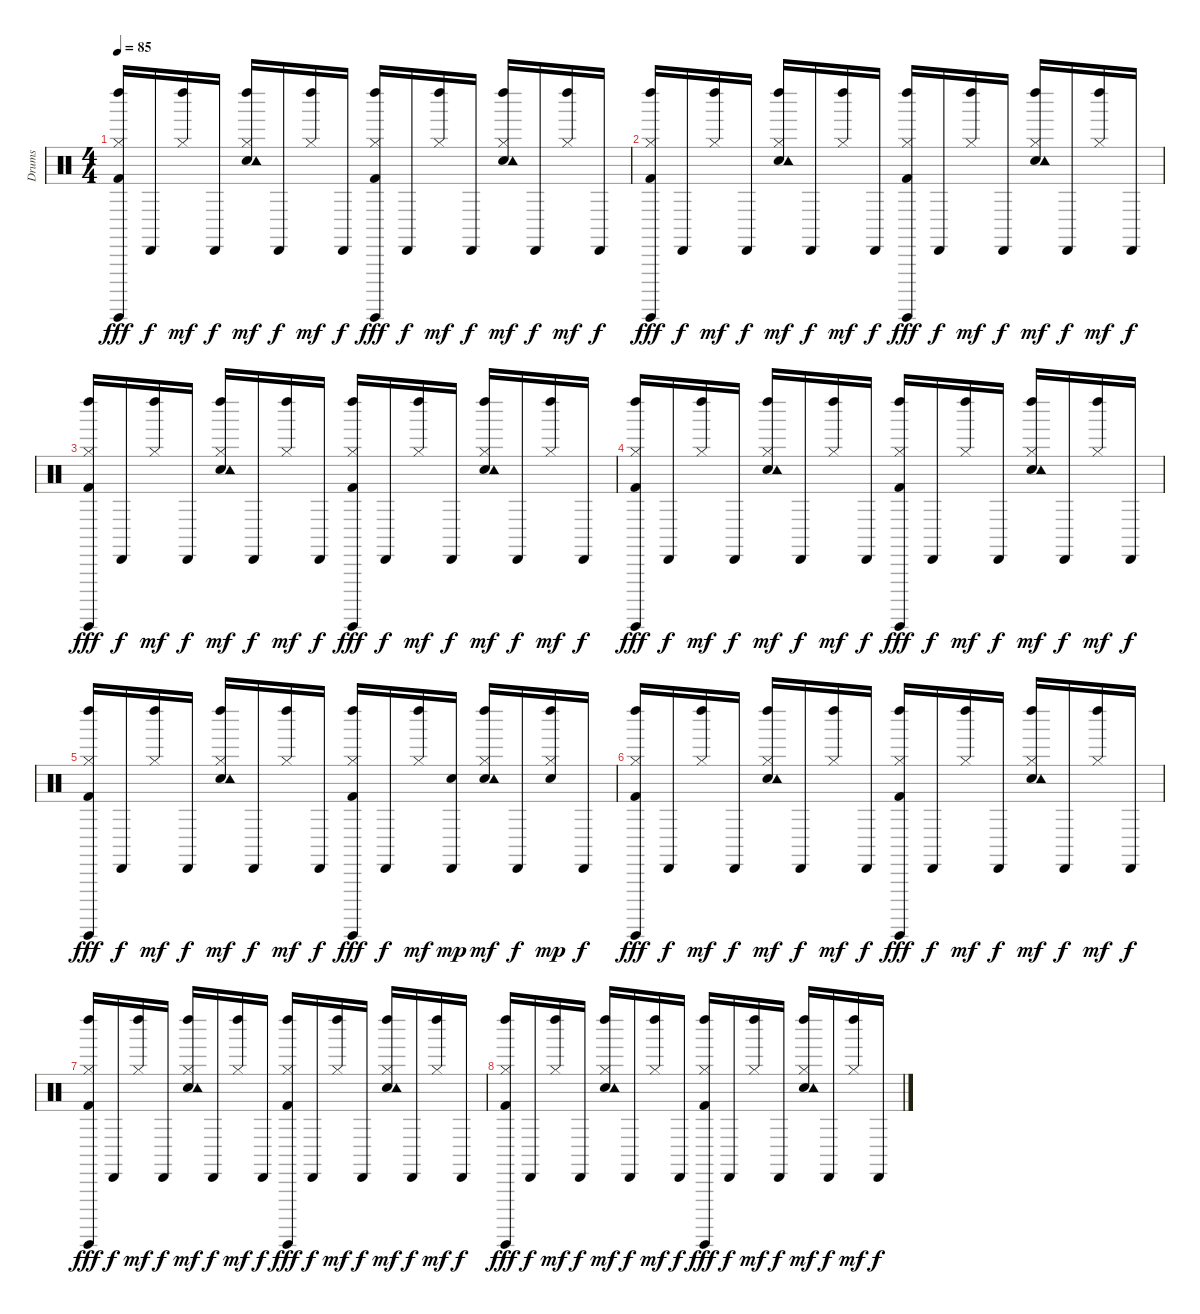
\track ("Drums" "Drums") {instrument percussion}
\staff {score}
\articulation defaults
\ts (4 4)
\tempo 85
\clef neutral
\ks c
("Hi-Hat (closed)" "Kick (hit) 2" "Guiro (hit)" "Left Maraca (hit)").16{dy fff} "Cabasa (hit)".16{dy f} ("Hi-Hat (closed)" "Left Maraca (hit)").16{dy mf} "Cabasa (hit)".16{dy f} ("Hi-Hat (closed)" "Electric Snare (hit)" "Left Maraca (hit)" "Tambourine (hit)").16{dy mf} "Cabasa (hit)".16{dy f} ("Hi-Hat (closed)" "Left Maraca (hit)").16{dy mf} "Cabasa (hit)".16{dy f} ("Hi-Hat (closed)" "Kick (hit) 2" "Guiro (hit)" "Left Maraca (hit)").16{dy fff} "Cabasa (hit)".16{dy f} ("Hi-Hat (closed)" "Left Maraca (hit)").16{dy mf} "Cabasa (hit)".16{dy f} ("Hi-Hat (closed)" "Electric Snare (hit)" "Left Maraca (hit)" "Tambourine (hit)").16{dy mf} "Cabasa (hit)".16{dy f} ("Hi-Hat (closed)" "Left Maraca (hit)").16{dy mf} "Cabasa (hit)".16{dy f} |
("Hi-Hat (closed)" "Kick (hit) 2" "Guiro (hit)" "Left Maraca (hit)").16{dy fff} "Cabasa (hit)".16{dy f} ("Hi-Hat (closed)" "Left Maraca (hit)").16{dy mf} "Cabasa (hit)".16{dy f} ("Hi-Hat (closed)" "Electric Snare (hit)" "Left Maraca (hit)" "Tambourine (hit)").16{dy mf} "Cabasa (hit)".16{dy f} ("Hi-Hat (closed)" "Left Maraca (hit)").16{dy mf} "Cabasa (hit)".16{dy f} ("Hi-Hat (closed)" "Kick (hit) 2" "Guiro (hit)" "Left Maraca (hit)").16{dy fff} "Cabasa (hit)".16{dy f} ("Hi-Hat (closed)" "Left Maraca (hit)").16{dy mf} "Cabasa (hit)".16{dy f} ("Hi-Hat (closed)" "Electric Snare (hit)" "Left Maraca (hit)" "Tambourine (hit)").16{dy mf} "Cabasa (hit)".16{dy f} ("Hi-Hat (closed)" "Left Maraca (hit)").16{dy mf} "Cabasa (hit)".16{dy f} |
("Hi-Hat (closed)" "Kick (hit) 2" "Guiro (hit)" "Left Maraca (hit)").16{dy fff} "Cabasa (hit)".16{dy f} ("Hi-Hat (closed)" "Left Maraca (hit)").16{dy mf} "Cabasa (hit)".16{dy f} ("Hi-Hat (closed)" "Electric Snare (hit)" "Left Maraca (hit)" "Tambourine (hit)").16{dy mf} "Cabasa (hit)".16{dy f} ("Hi-Hat (closed)" "Left Maraca (hit)").16{dy mf} "Cabasa (hit)".16{dy f} ("Hi-Hat (closed)" "Kick (hit) 2" "Guiro (hit)" "Left Maraca (hit)").16{dy fff} "Cabasa (hit)".16{dy f} ("Hi-Hat (closed)" "Left Maraca (hit)").16{dy mf} "Cabasa (hit)".16{dy f} ("Hi-Hat (closed)" "Electric Snare (hit)" "Left Maraca (hit)" "Tambourine (hit)").16{dy mf} "Cabasa (hit)".16{dy f} ("Hi-Hat (closed)" "Left Maraca (hit)").16{dy mf} "Cabasa (hit)".16{dy f} |
("Hi-Hat (closed)" "Kick (hit) 2" "Guiro (hit)" "Left Maraca (hit)").16{dy fff} "Cabasa (hit)".16{dy f} ("Hi-Hat (closed)" "Left Maraca (hit)").16{dy mf} "Cabasa (hit)".16{dy f} ("Hi-Hat (closed)" "Electric Snare (hit)" "Left Maraca (hit)" "Tambourine (hit)").16{dy mf} "Cabasa (hit)".16{dy f} ("Hi-Hat (closed)" "Left Maraca (hit)").16{dy mf} "Cabasa (hit)".16{dy f} ("Hi-Hat (closed)" "Kick (hit) 2" "Guiro (hit)" "Left Maraca (hit)").16{dy fff} "Cabasa (hit)".16{dy f} ("Hi-Hat (closed)" "Left Maraca (hit)").16{dy mf} "Cabasa (hit)".16{dy f} ("Hi-Hat (closed)" "Electric Snare (hit)" "Left Maraca (hit)" "Tambourine (hit)").16{dy mf} "Cabasa (hit)".16{dy f} ("Hi-Hat (closed)" "Left Maraca (hit)").16{dy mf} "Cabasa (hit)".16{dy f} |
("Hi-Hat (closed)" "Kick (hit) 2" "Guiro (hit)" "Left Maraca (hit)").16{dy fff} "Cabasa (hit)".16{dy f} ("Hi-Hat (closed)" "Left Maraca (hit)").16{dy mf} "Cabasa (hit)".16{dy f} ("Hi-Hat (closed)" "Electric Snare (hit)" "Left Maraca (hit)" "Tambourine (hit)").16{dy mf} "Cabasa (hit)".16{dy f} ("Hi-Hat (closed)" "Left Maraca (hit)").16{dy mf} "Cabasa (hit)".16{dy f} ("Hi-Hat (closed)" "Kick (hit) 2" "Guiro (hit)" "Left Maraca (hit)").16{dy fff} "Cabasa (hit)".16{dy f} ("Hi-Hat (closed)" "Left Maraca (hit)").16{dy mf} ("Snare (hit) 2" "Cabasa (hit)").16{dy mp} ("Hi-Hat (closed)" "Electric Snare (hit)" "Left Maraca (hit)" "Tambourine (hit)").16{dy mf} "Cabasa (hit)".16{dy f} ("Hi-Hat (closed)" "Electric Snare (hit)" "Left Maraca (hit)").16{dy mp} "Cabasa (hit)".16{dy f} |
("Hi-Hat (closed)" "Kick (hit) 2" "Guiro (hit)" "Left Maraca (hit)").16{dy fff} "Cabasa (hit)".16{dy f} ("Hi-Hat (closed)" "Left Maraca (hit)").16{dy mf} "Cabasa (hit)".16{dy f} ("Hi-Hat (closed)" "Electric Snare (hit)" "Left Maraca (hit)" "Tambourine (hit)").16{dy mf} "Cabasa (hit)".16{dy f} ("Hi-Hat (closed)" "Left Maraca (hit)").16{dy mf} "Cabasa (hit)".16{dy f} ("Hi-Hat (closed)" "Kick (hit) 2" "Guiro (hit)" "Left Maraca (hit)").16{dy fff} "Cabasa (hit)".16{dy f} ("Hi-Hat (closed)" "Left Maraca (hit)").16{dy mf} "Cabasa (hit)".16{dy f} ("Hi-Hat (closed)" "Electric Snare (hit)" "Left Maraca (hit)" "Tambourine (hit)").16{dy mf} "Cabasa (hit)".16{dy f} ("Hi-Hat (closed)" "Left Maraca (hit)").16{dy mf} "Cabasa (hit)".16{dy f} |
("Hi-Hat (closed)" "Kick (hit) 2" "Guiro (hit)" "Left Maraca (hit)").16{dy fff} "Cabasa (hit)".16{dy f} ("Hi-Hat (closed)" "Left Maraca (hit)").16{dy mf} "Cabasa (hit)".16{dy f} ("Hi-Hat (closed)" "Electric Snare (hit)" "Left Maraca (hit)" "Tambourine (hit)").16{dy mf} "Cabasa (hit)".16{dy f} ("Hi-Hat (closed)" "Left Maraca (hit)").16{dy mf} "Cabasa (hit)".16{dy f} ("Hi-Hat (closed)" "Kick (hit) 2" "Guiro (hit)" "Left Maraca (hit)").16{dy fff} "Cabasa (hit)".16{dy f} ("Hi-Hat (closed)" "Left Maraca (hit)").16{dy mf} "Cabasa (hit)".16{dy f} ("Hi-Hat (closed)" "Electric Snare (hit)" "Left Maraca (hit)" "Tambourine (hit)").16{dy mf} "Cabasa (hit)".16{dy f} ("Hi-Hat (closed)" "Left Maraca (hit)").16{dy mf} "Cabasa (hit)".16{dy f} |
("Hi-Hat (closed)" "Kick (hit) 2" "Guiro (hit)" "Left Maraca (hit)").16{dy fff} "Cabasa (hit)".16{dy f} ("Hi-Hat (closed)" "Left Maraca (hit)").16{dy mf} "Cabasa (hit)".16{dy f} ("Hi-Hat (closed)" "Electric Snare (hit)" "Left Maraca (hit)" "Tambourine (hit)").16{dy mf} "Cabasa (hit)".16{dy f} ("Hi-Hat (closed)" "Left Maraca (hit)").16{dy mf} "Cabasa (hit)".16{dy f} ("Hi-Hat (closed)" "Kick (hit) 2" "Guiro (hit)" "Left Maraca (hit)").16{dy fff} "Cabasa (hit)".16{dy f} ("Hi-Hat (closed)" "Left Maraca (hit)").16{dy mf} "Cabasa (hit)".16{dy f} ("Hi-Hat (closed)" "Electric Snare (hit)" "Left Maraca (hit)" "Tambourine (hit)").16{dy mf} "Cabasa (hit)".16{dy f} ("Hi-Hat (closed)" "Left Maraca (hit)").16{dy mf} "Cabasa (hit)".16{dy f}
